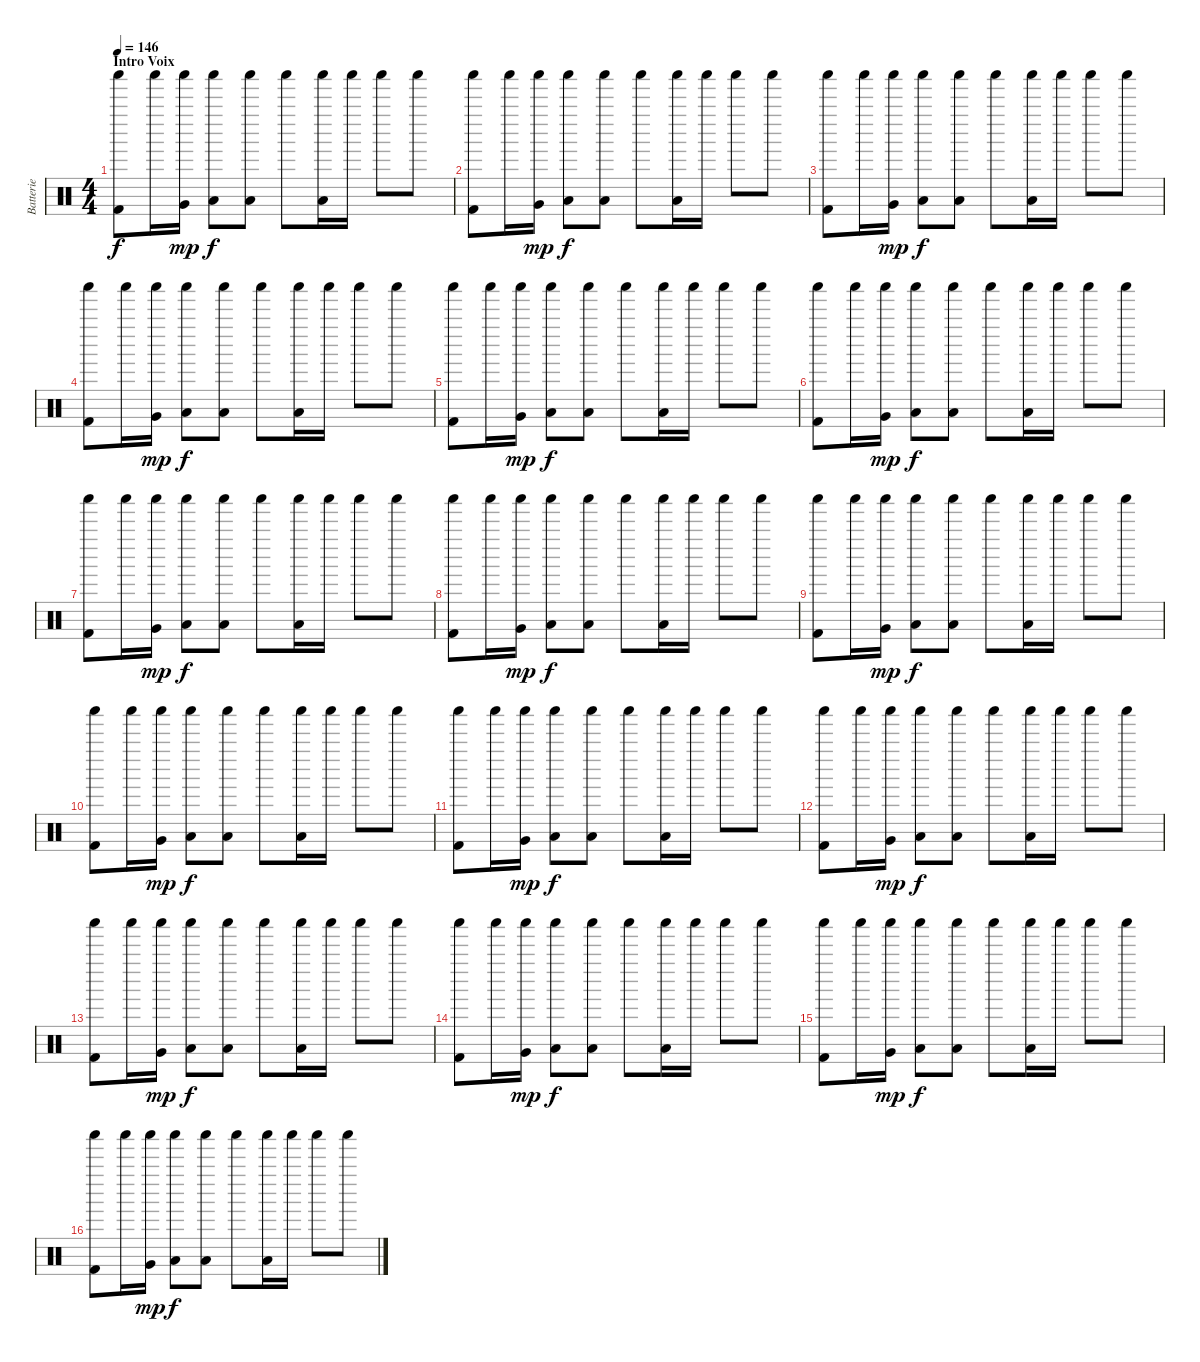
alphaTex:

\track ("Batterie" "Batterie") {instrument percussion}
\staff {score}
\articulation defaults
\ts (4 4)
\section ("" "Intro Voix")
\tempo 146
\clef neutral
\ks c
("Shaker (hit)" "Kick (hit) 2").8{dy f} "Shaker (hit)".16 ("Shaker (hit)" "Very Low Tom (hit)").16{dy mp} ("Shaker (hit)" "Low Tom (hit)").8{dy f} ("Shaker (hit)" "Low Tom (hit)").8 "Shaker (hit)".8 ("Shaker (hit)" "Low Tom (hit)").16 "Shaker (hit)".16 "Shaker (hit)".8 "Shaker (hit)".8 |
("Shaker (hit)" "Kick (hit) 2").8 "Shaker (hit)".16 ("Shaker (hit)" "Very Low Tom (hit)").16{dy mp} ("Shaker (hit)" "Low Tom (hit)").8{dy f} ("Shaker (hit)" "Low Tom (hit)").8 "Shaker (hit)".8 ("Shaker (hit)" "Low Tom (hit)").16 "Shaker (hit)".16 "Shaker (hit)".8 "Shaker (hit)".8 |
("Shaker (hit)" "Kick (hit) 2").8 "Shaker (hit)".16 ("Shaker (hit)" "Very Low Tom (hit)").16{dy mp} ("Shaker (hit)" "Low Tom (hit)").8{dy f} ("Shaker (hit)" "Low Tom (hit)").8 "Shaker (hit)".8 ("Shaker (hit)" "Low Tom (hit)").16 "Shaker (hit)".16 "Shaker (hit)".8 "Shaker (hit)".8 |
("Shaker (hit)" "Kick (hit) 2").8 "Shaker (hit)".16 ("Shaker (hit)" "Very Low Tom (hit)").16{dy mp} ("Shaker (hit)" "Low Tom (hit)").8{dy f} ("Shaker (hit)" "Low Tom (hit)").8 "Shaker (hit)".8 ("Shaker (hit)" "Low Tom (hit)").16 "Shaker (hit)".16 "Shaker (hit)".8 "Shaker (hit)".8 |
("Shaker (hit)" "Kick (hit) 2").8 "Shaker (hit)".16 ("Shaker (hit)" "Very Low Tom (hit)").16{dy mp} ("Shaker (hit)" "Low Tom (hit)").8{dy f} ("Shaker (hit)" "Low Tom (hit)").8 "Shaker (hit)".8 ("Shaker (hit)" "Low Tom (hit)").16 "Shaker (hit)".16 "Shaker (hit)".8 "Shaker (hit)".8 |
("Shaker (hit)" "Kick (hit) 2").8 "Shaker (hit)".16 ("Shaker (hit)" "Very Low Tom (hit)").16{dy mp} ("Shaker (hit)" "Low Tom (hit)").8{dy f} ("Shaker (hit)" "Low Tom (hit)").8 "Shaker (hit)".8 ("Shaker (hit)" "Low Tom (hit)").16 "Shaker (hit)".16 "Shaker (hit)".8 "Shaker (hit)".8 |
("Shaker (hit)" "Kick (hit) 2").8 "Shaker (hit)".16 ("Shaker (hit)" "Very Low Tom (hit)").16{dy mp} ("Shaker (hit)" "Low Tom (hit)").8{dy f} ("Shaker (hit)" "Low Tom (hit)").8 "Shaker (hit)".8 ("Shaker (hit)" "Low Tom (hit)").16 "Shaker (hit)".16 "Shaker (hit)".8 "Shaker (hit)".8 |
("Shaker (hit)" "Kick (hit) 2").8 "Shaker (hit)".16 ("Shaker (hit)" "Very Low Tom (hit)").16{dy mp} ("Shaker (hit)" "Low Tom (hit)").8{dy f} ("Shaker (hit)" "Low Tom (hit)").8 "Shaker (hit)".8 ("Shaker (hit)" "Low Tom (hit)").16 "Shaker (hit)".16 "Shaker (hit)".8 "Shaker (hit)".8 |
("Shaker (hit)" "Kick (hit) 2").8 "Shaker (hit)".16 ("Shaker (hit)" "Very Low Tom (hit)").16{dy mp} ("Shaker (hit)" "Low Tom (hit)").8{dy f} ("Shaker (hit)" "Low Tom (hit)").8 "Shaker (hit)".8 ("Shaker (hit)" "Low Tom (hit)").16 "Shaker (hit)".16 "Shaker (hit)".8 "Shaker (hit)".8 |
("Shaker (hit)" "Kick (hit) 2").8 "Shaker (hit)".16 ("Shaker (hit)" "Very Low Tom (hit)").16{dy mp} ("Shaker (hit)" "Low Tom (hit)").8{dy f} ("Shaker (hit)" "Low Tom (hit)").8 "Shaker (hit)".8 ("Shaker (hit)" "Low Tom (hit)").16 "Shaker (hit)".16 "Shaker (hit)".8 "Shaker (hit)".8 |
("Shaker (hit)" "Kick (hit) 2").8 "Shaker (hit)".16 ("Shaker (hit)" "Very Low Tom (hit)").16{dy mp} ("Shaker (hit)" "Low Tom (hit)").8{dy f} ("Shaker (hit)" "Low Tom (hit)").8 "Shaker (hit)".8 ("Shaker (hit)" "Low Tom (hit)").16 "Shaker (hit)".16 "Shaker (hit)".8 "Shaker (hit)".8 |
("Shaker (hit)" "Kick (hit) 2").8 "Shaker (hit)".16 ("Shaker (hit)" "Very Low Tom (hit)").16{dy mp} ("Shaker (hit)" "Low Tom (hit)").8{dy f} ("Shaker (hit)" "Low Tom (hit)").8 "Shaker (hit)".8 ("Shaker (hit)" "Low Tom (hit)").16 "Shaker (hit)".16 "Shaker (hit)".8 "Shaker (hit)".8 |
("Shaker (hit)" "Kick (hit) 2").8 "Shaker (hit)".16 ("Shaker (hit)" "Very Low Tom (hit)").16{dy mp} ("Shaker (hit)" "Low Tom (hit)").8{dy f} ("Shaker (hit)" "Low Tom (hit)").8 "Shaker (hit)".8 ("Shaker (hit)" "Low Tom (hit)").16 "Shaker (hit)".16 "Shaker (hit)".8 "Shaker (hit)".8 |
("Shaker (hit)" "Kick (hit) 2").8 "Shaker (hit)".16 ("Shaker (hit)" "Very Low Tom (hit)").16{dy mp} ("Shaker (hit)" "Low Tom (hit)").8{dy f} ("Shaker (hit)" "Low Tom (hit)").8 "Shaker (hit)".8 ("Shaker (hit)" "Low Tom (hit)").16 "Shaker (hit)".16 "Shaker (hit)".8 "Shaker (hit)".8 |
("Shaker (hit)" "Kick (hit) 2").8 "Shaker (hit)".16 ("Shaker (hit)" "Very Low Tom (hit)").16{dy mp} ("Shaker (hit)" "Low Tom (hit)").8{dy f} ("Shaker (hit)" "Low Tom (hit)").8 "Shaker (hit)".8 ("Shaker (hit)" "Low Tom (hit)").16 "Shaker (hit)".16 "Shaker (hit)".8 "Shaker (hit)".8 |
("Shaker (hit)" "Kick (hit) 2").8 "Shaker (hit)".16 ("Shaker (hit)" "Very Low Tom (hit)").16{dy mp} ("Shaker (hit)" "Low Tom (hit)").8{dy f} ("Shaker (hit)" "Low Tom (hit)").8 "Shaker (hit)".8 ("Shaker (hit)" "Low Tom (hit)").16 "Shaker (hit)".16 "Shaker (hit)".8 "Shaker (hit)".8
